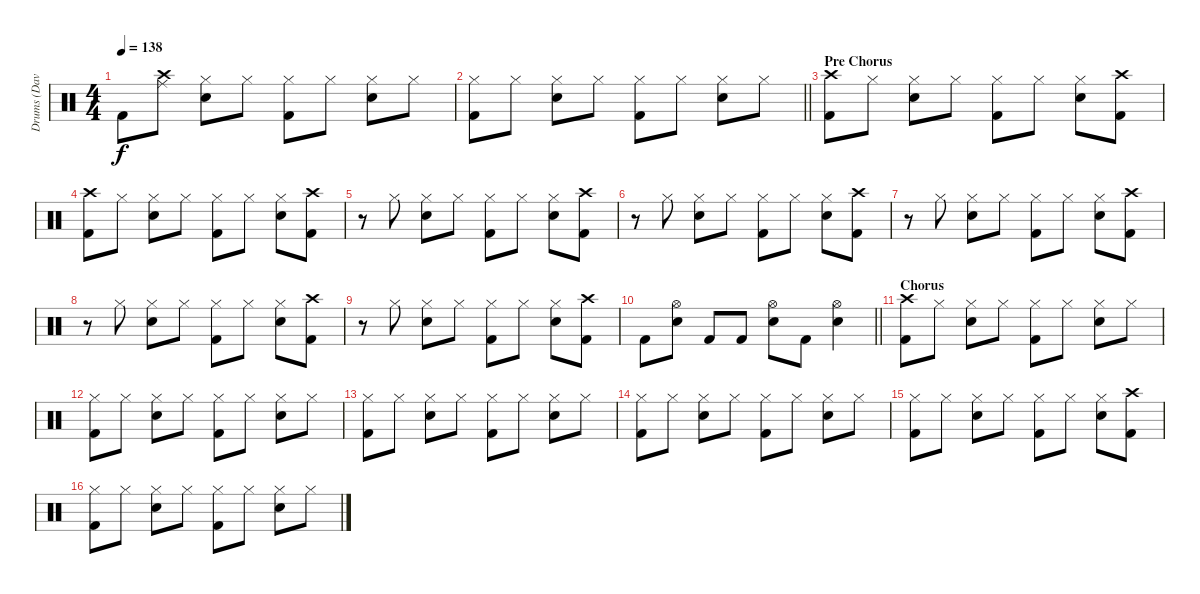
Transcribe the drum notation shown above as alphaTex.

\track ("Drums (Dave Holland)" "Drums (Dav") {instrument percussion}
\staff {score}
\articulation defaults
\ts (4 4)
\tempo 138
\clef neutral
\ks c "Kick (hit) 2".8{dy f}
("Crash high (hit)" "Ride (middle)").8 ("Hi-Hat (closed)" "Snare (hit) 2").8 "Hi-Hat (closed)".8 ("Hi-Hat (closed)" "Kick (hit) 2").8 "Hi-Hat (closed)".8 ("Hi-Hat (closed)" "Snare (hit) 2").8 "Hi-Hat (closed)".8 |
\barLineRight lightlight
("Hi-Hat (closed)" "Kick (hit) 2").8 "Hi-Hat (closed)".8 ("Hi-Hat (closed)" "Snare (hit) 2").8 "Hi-Hat (closed)".8 ("Hi-Hat (closed)" "Kick (hit) 2").8 "Hi-Hat (closed)".8 ("Hi-Hat (closed)" "Snare (hit) 2").8 "Hi-Hat (closed)".8 |
\section ("" "Pre Chorus")
("Crash high (hit)" "Kick (hit) 2").8 "Hi-Hat (closed)".8 ("Hi-Hat (closed)" "Snare (hit) 2").8 "Hi-Hat (closed)".8 ("Hi-Hat (closed)" "Kick (hit) 2").8 "Hi-Hat (closed)".8 ("Hi-Hat (closed)" "Snare (hit) 2").8 ("Crash high (hit)" "Kick (hit) 2").8 |
("Crash high (hit)" "Kick (hit) 2").8 "Hi-Hat (closed)".8 ("Hi-Hat (closed)" "Snare (hit) 2").8 "Hi-Hat (closed)".8 ("Hi-Hat (closed)" "Kick (hit) 2").8 "Hi-Hat (closed)".8 ("Hi-Hat (closed)" "Snare (hit) 2").8 ("Crash high (hit)" "Kick (hit) 2").8 |
r.8 "Hi-Hat (closed)".8 ("Hi-Hat (closed)" "Snare (hit) 2").8 "Hi-Hat (closed)".8 ("Hi-Hat (closed)" "Kick (hit) 2").8 "Hi-Hat (closed)".8 ("Hi-Hat (closed)" "Snare (hit) 2").8 ("Crash high (hit)" "Kick (hit) 2").8 |
r.8 "Hi-Hat (closed)".8 ("Hi-Hat (closed)" "Snare (hit) 2").8 "Hi-Hat (closed)".8 ("Hi-Hat (closed)" "Kick (hit) 2").8 "Hi-Hat (closed)".8 ("Hi-Hat (closed)" "Snare (hit) 2").8 ("Crash high (hit)" "Kick (hit) 2").8 |
r.8 "Hi-Hat (closed)".8 ("Hi-Hat (closed)" "Snare (hit) 2").8 "Hi-Hat (closed)".8 ("Hi-Hat (closed)" "Kick (hit) 2").8 "Hi-Hat (closed)".8 ("Hi-Hat (closed)" "Snare (hit) 2").8 ("Crash high (hit)" "Kick (hit) 2").8 |
r.8 "Hi-Hat (closed)".8 ("Hi-Hat (closed)" "Snare (hit) 2").8 "Hi-Hat (closed)".8 ("Hi-Hat (closed)" "Kick (hit) 2").8 "Hi-Hat (closed)".8 ("Hi-Hat (closed)" "Snare (hit) 2").8 ("Crash high (hit)" "Kick (hit) 2").8 |
r.8 "Hi-Hat (closed)".8 ("Hi-Hat (closed)" "Snare (hit) 2").8 "Hi-Hat (closed)".8 ("Hi-Hat (closed)" "Kick (hit) 2").8 "Hi-Hat (closed)".8 ("Hi-Hat (closed)" "Snare (hit) 2").8 ("Crash high (hit)" "Kick (hit) 2").8 |
\barLineRight lightlight "Kick (hit) 2".8
("Hi-Hat (open)" "Snare (hit) 2").8 "Kick (hit) 2".8 "Kick (hit) 2".8 ("Hi-Hat (open)" "Snare (hit) 2").8 "Kick (hit) 2".8 ("Hi-Hat (open)" "Snare (hit) 2").4 |
\section ("" "Chorus")
("Crash high (hit)" "Kick (hit) 2").8 "Hi-Hat (closed)".8 ("Hi-Hat (closed)" "Snare (hit) 2").8 "Hi-Hat (closed)".8 ("Hi-Hat (closed)" "Kick (hit) 2").8 "Hi-Hat (closed)".8 ("Hi-Hat (closed)" "Snare (hit) 2").8 "Hi-Hat (closed)".8 |
("Hi-Hat (closed)" "Kick (hit) 2").8 "Hi-Hat (closed)".8 ("Hi-Hat (closed)" "Snare (hit) 2").8 "Hi-Hat (closed)".8 ("Hi-Hat (closed)" "Kick (hit) 2").8 "Hi-Hat (closed)".8 ("Hi-Hat (closed)" "Snare (hit) 2").8 "Hi-Hat (closed)".8 |
("Hi-Hat (closed)" "Kick (hit) 2").8 "Hi-Hat (closed)".8 ("Hi-Hat (closed)" "Snare (hit) 2").8 "Hi-Hat (closed)".8 ("Hi-Hat (closed)" "Kick (hit) 2").8 "Hi-Hat (closed)".8 ("Hi-Hat (closed)" "Snare (hit) 2").8 "Hi-Hat (closed)".8 |
("Hi-Hat (closed)" "Kick (hit) 2").8 "Hi-Hat (closed)".8 ("Hi-Hat (closed)" "Snare (hit) 2").8 "Hi-Hat (closed)".8 ("Hi-Hat (closed)" "Kick (hit) 2").8 "Hi-Hat (closed)".8 ("Hi-Hat (closed)" "Snare (hit) 2").8 "Hi-Hat (closed)".8 |
("Hi-Hat (closed)" "Kick (hit) 2").8 "Hi-Hat (closed)".8 ("Hi-Hat (closed)" "Snare (hit) 2").8 "Hi-Hat (closed)".8 ("Hi-Hat (closed)" "Kick (hit) 2").8 "Hi-Hat (closed)".8 ("Hi-Hat (closed)" "Snare (hit) 2").8 ("Crash high (hit)" "Kick (hit) 2").8 |
("Hi-Hat (closed)" "Kick (hit) 2").8 "Hi-Hat (closed)".8 ("Hi-Hat (closed)" "Snare (hit) 2").8 "Hi-Hat (closed)".8 ("Hi-Hat (closed)" "Kick (hit) 2").8 "Hi-Hat (closed)".8 ("Hi-Hat (closed)" "Snare (hit) 2").8 "Hi-Hat (closed)".8
